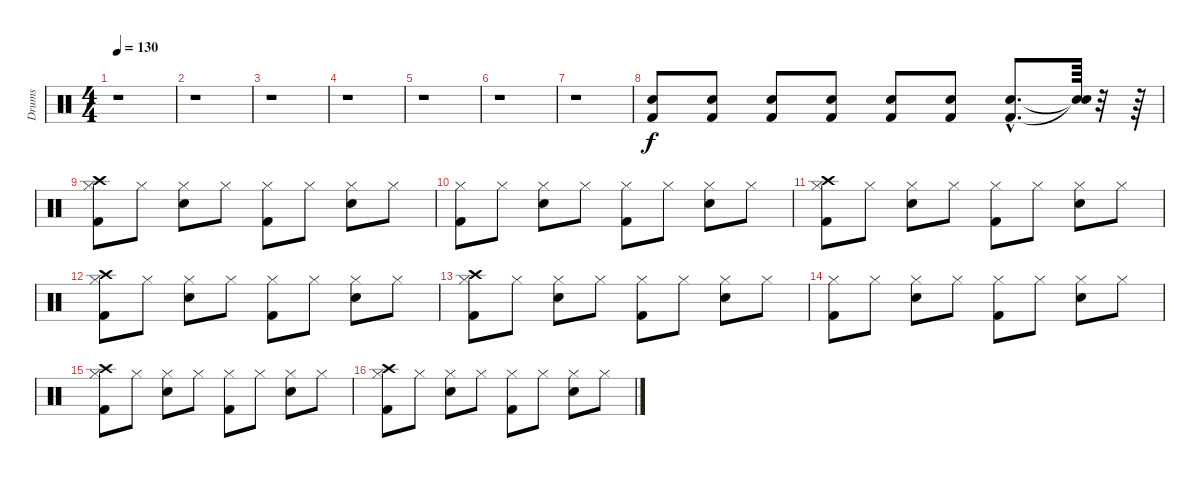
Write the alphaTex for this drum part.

\track ("Drums" "Drums") {instrument percussion}
\staff {score}
\articulation defaults
\ts (4 4)
\tempo 130
\clef neutral
\ks c
r.1{dy f} |
r.1 |
r.1 |
r.1 |
r.1 |
r.1 |
r.1 |
("Kick (hit) 2" "Snare (hit) 2").8 ("Kick (hit) 2" "Snare (hit) 2").8 ("Kick (hit) 2" "Snare (hit) 2").8 ("Kick (hit) 2" "Snare (hit) 2").8 ("Kick (hit) 2" "Snare (hit) 2").8 ("Kick (hit) 2" "Snare (hit) 2").8 ("Kick (hit) 2"{hac} "Snare (hit) 2"{hac}).8{d} ("Snare (hit)"{t} "Snare (hit)"{t}).64 r.32 r.64 |
("Kick (hit) 2" "Hi-Hat (closed)" "Crash high (hit)").8 "Hi-Hat (closed)".8 ("Snare (hit) 2" "Hi-Hat (closed)").8 "Hi-Hat (closed)".8 ("Kick (hit) 2" "Hi-Hat (closed)").8 "Hi-Hat (closed)".8 ("Snare (hit) 2" "Hi-Hat (closed)").8 "Hi-Hat (closed)".8 |
("Kick (hit) 2" "Hi-Hat (closed)").8 "Hi-Hat (closed)".8 ("Snare (hit) 2" "Hi-Hat (closed)").8 "Hi-Hat (closed)".8 ("Kick (hit) 2" "Hi-Hat (closed)").8 "Hi-Hat (closed)".8 ("Snare (hit) 2" "Hi-Hat (closed)").8 "Hi-Hat (closed)".8 |
("Kick (hit) 2" "Hi-Hat (closed)" "Crash high (hit)").8 "Hi-Hat (closed)".8 ("Snare (hit) 2" "Hi-Hat (closed)").8 "Hi-Hat (closed)".8 ("Kick (hit) 2" "Hi-Hat (closed)").8 "Hi-Hat (closed)".8 ("Snare (hit) 2" "Hi-Hat (closed)").8 "Hi-Hat (closed)".8 |
("Kick (hit) 2" "Hi-Hat (closed)" "Crash high (hit)").8 "Hi-Hat (closed)".8 ("Snare (hit) 2" "Hi-Hat (closed)").8 "Hi-Hat (closed)".8 ("Kick (hit) 2" "Hi-Hat (closed)").8 "Hi-Hat (closed)".8 ("Snare (hit) 2" "Hi-Hat (closed)").8 "Hi-Hat (closed)".8 |
("Kick (hit) 2" "Hi-Hat (closed)" "Crash high (hit)").8 "Hi-Hat (closed)".8 ("Snare (hit) 2" "Hi-Hat (closed)").8 "Hi-Hat (closed)".8 ("Kick (hit) 2" "Hi-Hat (closed)").8 "Hi-Hat (closed)".8 ("Snare (hit) 2" "Hi-Hat (closed)").8 "Hi-Hat (closed)".8 |
("Kick (hit) 2" "Hi-Hat (closed)").8 "Hi-Hat (closed)".8 ("Snare (hit) 2" "Hi-Hat (closed)").8 "Hi-Hat (closed)".8 ("Kick (hit) 2" "Hi-Hat (closed)").8 "Hi-Hat (closed)".8 ("Snare (hit) 2" "Hi-Hat (closed)").8 "Hi-Hat (closed)".8 |
("Kick (hit) 2" "Hi-Hat (closed)" "Crash high (hit)").8 "Hi-Hat (closed)".8 ("Snare (hit) 2" "Hi-Hat (closed)").8 "Hi-Hat (closed)".8 ("Kick (hit) 2" "Hi-Hat (closed)").8 "Hi-Hat (closed)".8 ("Snare (hit) 2" "Hi-Hat (closed)").8 "Hi-Hat (closed)".8 |
("Kick (hit) 2" "Hi-Hat (closed)" "Crash high (hit)").8 "Hi-Hat (closed)".8 ("Snare (hit) 2" "Hi-Hat (closed)").8 "Hi-Hat (closed)".8 ("Kick (hit) 2" "Hi-Hat (closed)").8 "Hi-Hat (closed)".8 ("Snare (hit) 2" "Hi-Hat (closed)").8 "Hi-Hat (closed)".8
